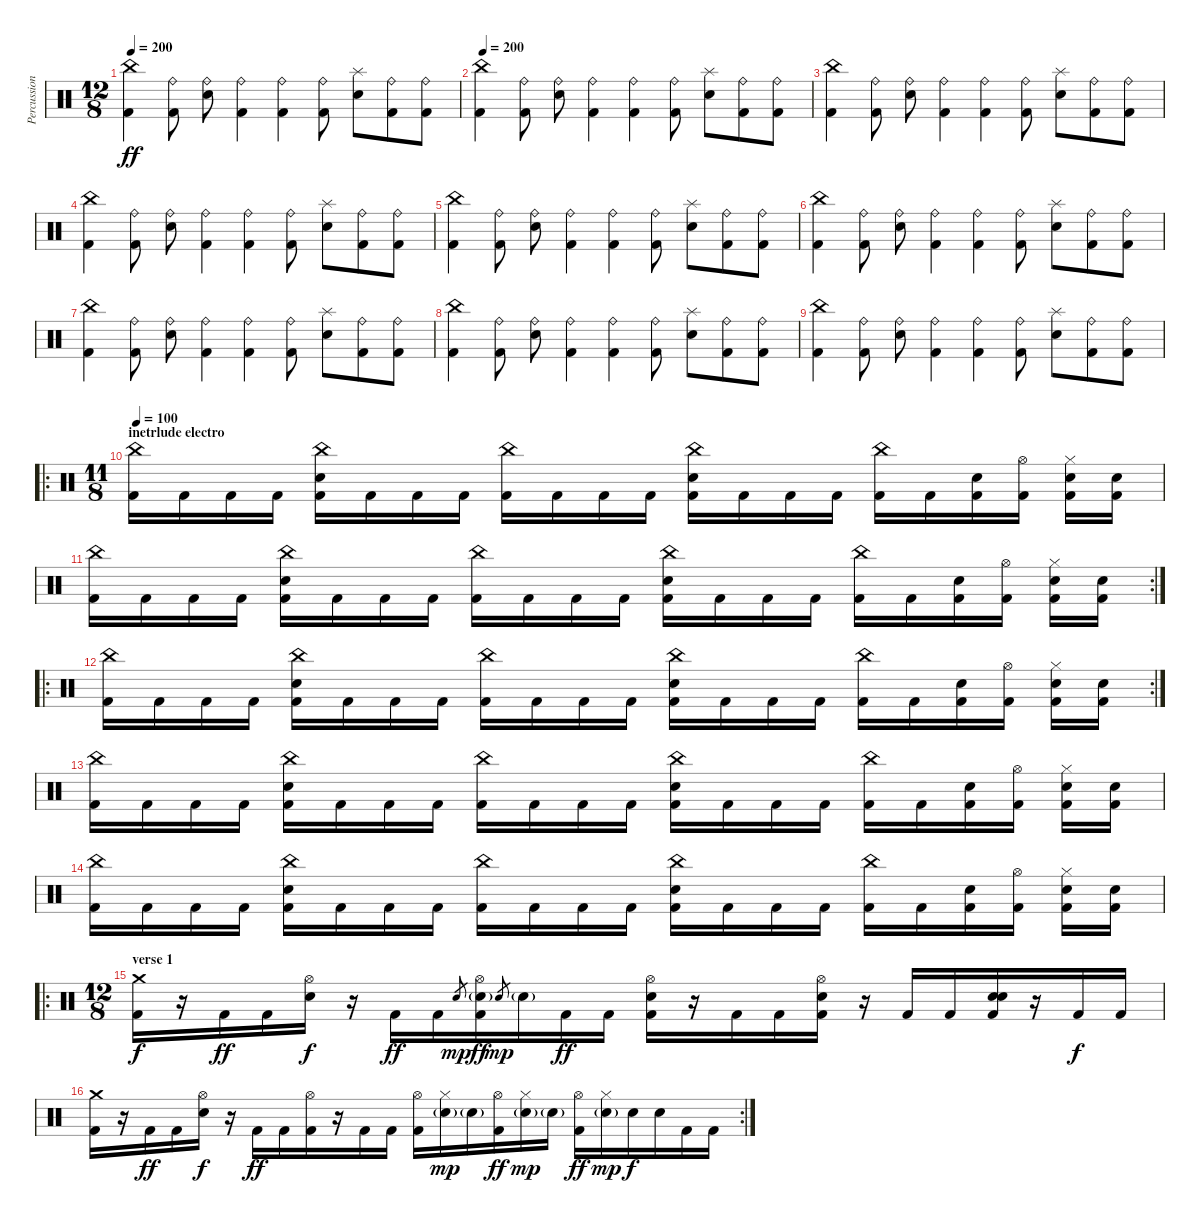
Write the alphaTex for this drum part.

\track ("Percussions" "Percussion") {instrument percussion}
\staff {score}
\articulation defaults
\ts (12 8)
\tempo 200
\clef neutral
\ks c
("China (hit)" "Kick (hit) 2").4{dy ff} ("Ride (bell)" "Kick (hit) 2").8 ("Ride (bell)" "Electric Snare (hit)").8 ("Ride (bell)" "Kick (hit) 2").4 ("Ride (bell)" "Kick (hit) 2").4 ("Ride (bell)" "Kick (hit) 2").8 ("Splash (hit)" "Electric Snare (hit)").8 ("Ride (bell)" "Kick (hit) 2").8 ("Ride (bell)" "Kick (hit) 2").8 |
\tempo 200
("China (hit)" "Kick (hit) 2").4 ("Ride (bell)" "Kick (hit) 2").8 ("Ride (bell)" "Electric Snare (hit)").8 ("Ride (bell)" "Kick (hit) 2").4 ("Ride (bell)" "Kick (hit) 2").4 ("Ride (bell)" "Kick (hit) 2").8 ("Splash (hit)" "Electric Snare (hit)").8 ("Ride (bell)" "Kick (hit) 2").8 ("Ride (bell)" "Kick (hit) 2").8 |
("China (hit)" "Kick (hit) 2").4 ("Ride (bell)" "Kick (hit) 2").8 ("Ride (bell)" "Electric Snare (hit)").8 ("Ride (bell)" "Kick (hit) 2").4 ("Ride (bell)" "Kick (hit) 2").4 ("Ride (bell)" "Kick (hit) 2").8 ("Splash (hit)" "Electric Snare (hit)").8 ("Ride (bell)" "Kick (hit) 2").8 ("Ride (bell)" "Kick (hit) 2").8 |
("China (hit)" "Kick (hit) 2").4 ("Ride (bell)" "Kick (hit) 2").8 ("Ride (bell)" "Electric Snare (hit)").8 ("Ride (bell)" "Kick (hit) 2").4 ("Ride (bell)" "Kick (hit) 2").4 ("Ride (bell)" "Kick (hit) 2").8 ("Splash (hit)" "Electric Snare (hit)").8 ("Ride (bell)" "Kick (hit) 2").8 ("Ride (bell)" "Kick (hit) 2").8 |
("China (hit)" "Kick (hit) 2").4 ("Ride (bell)" "Kick (hit) 2").8 ("Ride (bell)" "Electric Snare (hit)").8 ("Ride (bell)" "Kick (hit) 2").4 ("Ride (bell)" "Kick (hit) 2").4 ("Ride (bell)" "Kick (hit) 2").8 ("Splash (hit)" "Electric Snare (hit)").8 ("Ride (bell)" "Kick (hit) 2").8 ("Ride (bell)" "Kick (hit) 2").8 |
("China (hit)" "Kick (hit) 2").4 ("Ride (bell)" "Kick (hit) 2").8 ("Ride (bell)" "Electric Snare (hit)").8 ("Ride (bell)" "Kick (hit) 2").4 ("Ride (bell)" "Kick (hit) 2").4 ("Ride (bell)" "Kick (hit) 2").8 ("Splash (hit)" "Electric Snare (hit)").8 ("Ride (bell)" "Kick (hit) 2").8 ("Ride (bell)" "Kick (hit) 2").8 |
("China (hit)" "Kick (hit) 2").4 ("Ride (bell)" "Kick (hit) 2").8 ("Ride (bell)" "Electric Snare (hit)").8 ("Ride (bell)" "Kick (hit) 2").4 ("Ride (bell)" "Kick (hit) 2").4 ("Ride (bell)" "Kick (hit) 2").8 ("Splash (hit)" "Electric Snare (hit)").8 ("Ride (bell)" "Kick (hit) 2").8 ("Ride (bell)" "Kick (hit) 2").8 |
("China (hit)" "Kick (hit) 2").4 ("Ride (bell)" "Kick (hit) 2").8 ("Ride (bell)" "Electric Snare (hit)").8 ("Ride (bell)" "Kick (hit) 2").4 ("Ride (bell)" "Kick (hit) 2").4 ("Ride (bell)" "Kick (hit) 2").8 ("Splash (hit)" "Electric Snare (hit)").8 ("Ride (bell)" "Kick (hit) 2").8 ("Ride (bell)" "Kick (hit) 2").8 |
("China (hit)" "Kick (hit) 2").4 ("Ride (bell)" "Kick (hit) 2").8 ("Ride (bell)" "Electric Snare (hit)").8 ("Ride (bell)" "Kick (hit) 2").4 ("Ride (bell)" "Kick (hit) 2").4 ("Ride (bell)" "Kick (hit) 2").8 ("Splash (hit)" "Electric Snare (hit)").8 ("Ride (bell)" "Kick (hit) 2").8 ("Ride (bell)" "Kick (hit) 2").8 |
\ro
\ts (11 8)
\section ("" "inetrlude electro")
\tempo 100
("China (hit)" "Kick (hit) 2").16 "Kick (hit) 2".16 "Kick (hit) 2".16 "Kick (hit) 2".16 ("China (hit)" "Electric Snare (hit)" "Kick (hit) 2").16 "Kick (hit) 2".16 "Kick (hit) 2".16 "Kick (hit) 2".16 ("China (hit)" "Kick (hit) 2").16 "Kick (hit) 2".16 "Kick (hit) 2".16 "Kick (hit) 2".16 ("China (hit)" "Electric Snare (hit)" "Kick (hit) 2").16 "Kick (hit) 2".16 "Kick (hit) 2".16 "Kick (hit) 2".16 ("China (hit)" "Kick (hit) 2").16 "Kick (hit) 2".16 ("Electric Snare (hit)" "Kick (hit) 2").16 ("Hi-Hat (open)" "Kick (hit) 2").16 ("Hi-Hat (closed)" "Electric Snare (hit)" "Kick (hit) 2").16 ("Electric Snare (hit)" "Kick (hit) 2").16 |
\rc 2
("China (hit)" "Kick (hit) 2").16 "Kick (hit) 2".16 "Kick (hit) 2".16 "Kick (hit) 2".16 ("China (hit)" "Electric Snare (hit)" "Kick (hit) 2").16 "Kick (hit) 2".16 "Kick (hit) 2".16 "Kick (hit) 2".16 ("China (hit)" "Kick (hit) 2").16 "Kick (hit) 2".16 "Kick (hit) 2".16 "Kick (hit) 2".16 ("China (hit)" "Electric Snare (hit)" "Kick (hit) 2").16 "Kick (hit) 2".16 "Kick (hit) 2".16 "Kick (hit) 2".16 ("China (hit)" "Kick (hit) 2").16 "Kick (hit) 2".16 ("Electric Snare (hit)" "Kick (hit) 2").16 ("Hi-Hat (open)" "Kick (hit) 2").16 ("Hi-Hat (closed)" "Electric Snare (hit)" "Kick (hit) 2").16 ("Electric Snare (hit)" "Kick (hit) 2").16 |
\ro
\rc 2
("China (hit)" "Kick (hit) 2").16 "Kick (hit) 2".16 "Kick (hit) 2".16 "Kick (hit) 2".16 ("China (hit)" "Electric Snare (hit)" "Kick (hit) 2").16 "Kick (hit) 2".16 "Kick (hit) 2".16 "Kick (hit) 2".16 ("China (hit)" "Kick (hit) 2").16 "Kick (hit) 2".16 "Kick (hit) 2".16 "Kick (hit) 2".16 ("China (hit)" "Electric Snare (hit)" "Kick (hit) 2").16 "Kick (hit) 2".16 "Kick (hit) 2".16 "Kick (hit) 2".16 ("China (hit)" "Kick (hit) 2").16 "Kick (hit) 2".16 ("Electric Snare (hit)" "Kick (hit) 2").16 ("Hi-Hat (open)" "Kick (hit) 2").16 ("Hi-Hat (closed)" "Electric Snare (hit)" "Kick (hit) 2").16 ("Electric Snare (hit)" "Kick (hit) 2").16 |
("China (hit)" "Kick (hit) 2").16 "Kick (hit) 2".16 "Kick (hit) 2".16 "Kick (hit) 2".16 ("China (hit)" "Electric Snare (hit)" "Kick (hit) 2").16 "Kick (hit) 2".16 "Kick (hit) 2".16 "Kick (hit) 2".16 ("China (hit)" "Kick (hit) 2").16 "Kick (hit) 2".16 "Kick (hit) 2".16 "Kick (hit) 2".16 ("China (hit)" "Electric Snare (hit)" "Kick (hit) 2").16 "Kick (hit) 2".16 "Kick (hit) 2".16 "Kick (hit) 2".16 ("China (hit)" "Kick (hit) 2").16 "Kick (hit) 2".16 ("Electric Snare (hit)" "Kick (hit) 2").16 ("Hi-Hat (open)" "Kick (hit) 2").16 ("Hi-Hat (closed)" "Electric Snare (hit)" "Kick (hit) 2").16 ("Electric Snare (hit)" "Kick (hit) 2").16 |
("China (hit)" "Kick (hit) 2").16 "Kick (hit) 2".16 "Kick (hit) 2".16 "Kick (hit) 2".16 ("China (hit)" "Electric Snare (hit)" "Kick (hit) 2").16 "Kick (hit) 2".16 "Kick (hit) 2".16 "Kick (hit) 2".16 ("China (hit)" "Kick (hit) 2").16 "Kick (hit) 2".16 "Kick (hit) 2".16 "Kick (hit) 2".16 ("China (hit)" "Electric Snare (hit)" "Kick (hit) 2").16 "Kick (hit) 2".16 "Kick (hit) 2".16 "Kick (hit) 2".16 ("China (hit)" "Kick (hit) 2").16 "Kick (hit) 2".16 ("Electric Snare (hit)" "Kick (hit) 2").16 ("Hi-Hat (open)" "Kick (hit) 2").16 ("Hi-Hat (closed)" "Electric Snare (hit)" "Kick (hit) 2").16 ("Electric Snare (hit)" "Kick (hit) 2").16 |
\ro
\ts (12 8)
\section ("" "verse 1")
("Crash medium (hit)" "Kick (hit) 2").16{dy f} r.16 "Kick (hit) 2".16{dy ff} "Kick (hit) 2".16 ("Hi-Hat (open)" "Electric Snare (hit)").16{dy f} r.16 "Kick (hit) 2".16{dy ff} "Kick (hit) 2".16 "Electric Snare (hit)".8{gr dy mp} ("Hi-Hat (open)" "Electric Snare (hit)"{g} "Kick (hit) 2").16{dy ff} "Electric Snare (hit)".8{gr dy mp} "Electric Snare (hit)"{g}.16 "Kick (hit) 2".16{dy ff} "Kick (hit) 2".16 ("Hi-Hat (open)" "Electric Snare (hit)" "Kick (hit) 2").16 r.16 "Kick (hit) 2".16 "Kick (hit) 2".16 ("Hi-Hat (open)" "Electric Snare (hit)" "Kick (hit) 2").16 r.16 "Kick (hit) 2".16 "Kick (hit) 2".16 ("Electric Snare (hit)" "Electric Snare (hit)" "Kick (hit) 2").16 r.16 "Kick (hit) 2".16{dy f} "Kick (hit) 2".16 |
\rc 2
("Crash medium (hit)" "Kick (hit) 2").16 r.16 "Kick (hit) 2".16{dy ff} "Kick (hit) 2".16 ("Hi-Hat (open)" "Electric Snare (hit)").16{dy f} r.16 "Kick (hit) 2".16{dy ff} "Kick (hit) 2".16 ("Hi-Hat (open)" "Kick (hit) 2").16 r.16 "Kick (hit) 2".16 "Kick (hit) 2".16 ("Hi-Hat (open)" "Kick (hit) 2").16 ("Hi-Hat (closed)" "Electric Snare (hit)"{g}).16{dy mp} "Electric Snare (hit)"{g}.16 ("Hi-Hat (open)" "Kick (hit) 2").16{dy ff} ("Hi-Hat (closed)" "Electric Snare (hit)"{g}).16{dy mp} "Electric Snare (hit)"{g}.16 ("Hi-Hat (open)" "Kick (hit) 2").16{dy ff} ("Hi-Hat (closed)" "Electric Snare (hit)"{g}).16{dy mp} "Electric Snare (hit)".16{dy f} "Electric Snare (hit)".16 "Kick (hit) 2".16 "Kick (hit) 2".16
